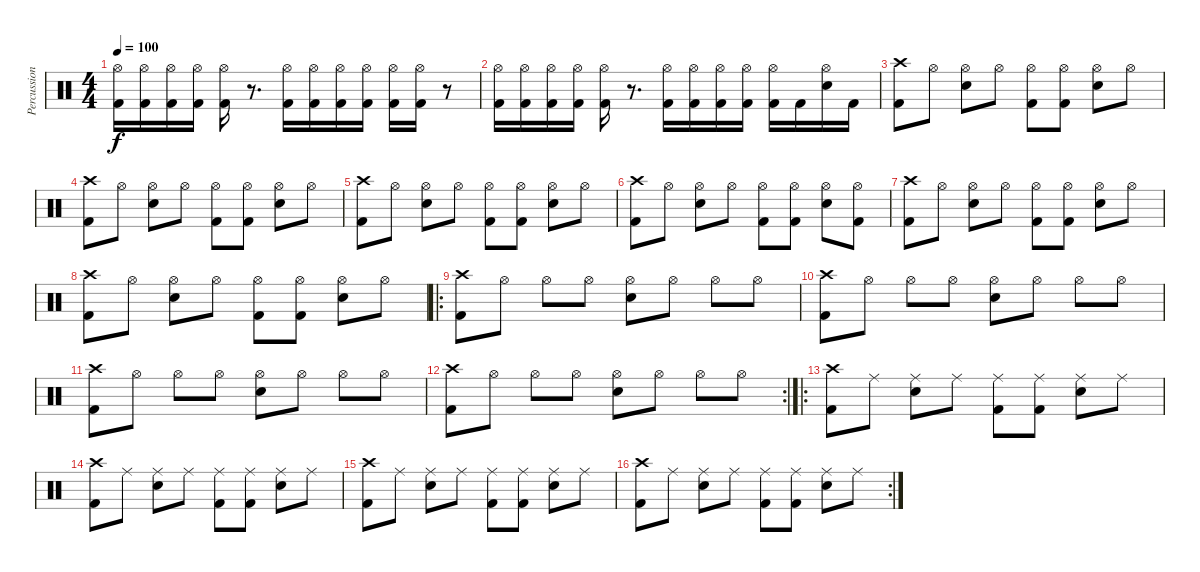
\track ("Percussion" "Percussion") {instrument percussion}
\staff {score}
\articulation defaults
\ts (4 4)
\tempo 100
\clef neutral
\ks c
("Hi-Hat (open)" "Kick (hit) 2").16{dy f} ("Hi-Hat (open)" "Kick (hit) 2").16 ("Hi-Hat (open)" "Kick (hit) 2").16 ("Hi-Hat (open)" "Kick (hit) 2").16 ("Hi-Hat (open)" "Kick (hit) 2").16 r.8{d} ("Hi-Hat (open)" "Kick (hit) 2").16 ("Hi-Hat (open)" "Kick (hit) 2").16 ("Hi-Hat (open)" "Kick (hit) 2").16 ("Hi-Hat (open)" "Kick (hit) 2").16 ("Hi-Hat (open)" "Kick (hit) 2").16 ("Hi-Hat (open)" "Kick (hit) 2").16 r.8 |
("Hi-Hat (open)" "Kick (hit) 2").16 ("Hi-Hat (open)" "Kick (hit) 2").16 ("Hi-Hat (open)" "Kick (hit) 2").16 ("Hi-Hat (open)" "Kick (hit) 2").16 ("Hi-Hat (open)" "Kick (hit) 2").16 r.8{d} ("Hi-Hat (open)" "Kick (hit) 2").16 ("Hi-Hat (open)" "Kick (hit) 2").16 ("Hi-Hat (open)" "Kick (hit) 2").16 ("Hi-Hat (open)" "Kick (hit) 2").16 ("Hi-Hat (open)" "Kick (hit) 2").16 "Kick (hit) 2".16 ("Hi-Hat (open)" "Snare (hit) 2").16 "Kick (hit) 2".16 |
("Crash high (hit)" "Kick (hit) 2").8 "Hi-Hat (open)".8 ("Hi-Hat (open)" "Snare (hit) 2").8 "Hi-Hat (open)".8 ("Hi-Hat (open)" "Kick (hit) 2").8 ("Hi-Hat (open)" "Kick (hit) 2").8 ("Hi-Hat (open)" "Snare (hit) 2").8 "Hi-Hat (open)".8 |
("Crash high (hit)" "Kick (hit) 2").8 "Hi-Hat (open)".8 ("Hi-Hat (open)" "Snare (hit) 2").8 "Hi-Hat (open)".8 ("Hi-Hat (open)" "Kick (hit) 2").8 ("Hi-Hat (open)" "Kick (hit) 2").8 ("Hi-Hat (open)" "Snare (hit) 2").8 "Hi-Hat (open)".8 |
("Crash high (hit)" "Kick (hit) 2").8 "Hi-Hat (open)".8 ("Hi-Hat (open)" "Snare (hit) 2").8 "Hi-Hat (open)".8 ("Hi-Hat (open)" "Kick (hit) 2").8 ("Hi-Hat (open)" "Kick (hit) 2").8 ("Hi-Hat (open)" "Snare (hit) 2").8 "Hi-Hat (open)".8 |
("Crash high (hit)" "Kick (hit) 2").8 "Hi-Hat (open)".8 ("Hi-Hat (open)" "Snare (hit) 2").8 "Hi-Hat (open)".8 ("Hi-Hat (open)" "Kick (hit) 2").8 ("Hi-Hat (open)" "Kick (hit) 2").8 ("Hi-Hat (open)" "Snare (hit) 2").8 ("Hi-Hat (open)" "Kick (hit) 2").8 |
("Crash high (hit)" "Kick (hit) 2").8 "Hi-Hat (open)".8 ("Hi-Hat (open)" "Snare (hit) 2").8 "Hi-Hat (open)".8 ("Hi-Hat (open)" "Kick (hit) 2").8 ("Hi-Hat (open)" "Kick (hit) 2").8 ("Hi-Hat (open)" "Snare (hit) 2").8 "Hi-Hat (open)".8 |
("Crash high (hit)" "Kick (hit) 2").8 "Hi-Hat (open)".8 ("Hi-Hat (open)" "Snare (hit) 2").8 "Hi-Hat (open)".8 ("Hi-Hat (open)" "Kick (hit) 2").8 ("Hi-Hat (open)" "Kick (hit) 2").8 ("Hi-Hat (open)" "Snare (hit) 2").8 "Hi-Hat (open)".8 |
\ro
("Crash high (hit)" "Kick (hit) 2").8 "Hi-Hat (open)".8 "Hi-Hat (open)".8 "Hi-Hat (open)".8 ("Hi-Hat (open)" "Snare (hit) 2").8 "Hi-Hat (open)".8 "Hi-Hat (open)".8 "Hi-Hat (open)".8 |
("Crash high (hit)" "Kick (hit) 2").8 "Hi-Hat (open)".8 "Hi-Hat (open)".8 "Hi-Hat (open)".8 ("Hi-Hat (open)" "Snare (hit) 2").8 "Hi-Hat (open)".8 "Hi-Hat (open)".8 "Hi-Hat (open)".8 |
("Crash high (hit)" "Kick (hit) 2").8 "Hi-Hat (open)".8 "Hi-Hat (open)".8 "Hi-Hat (open)".8 ("Hi-Hat (open)" "Snare (hit) 2").8 "Hi-Hat (open)".8 "Hi-Hat (open)".8 "Hi-Hat (open)".8 |
\rc 2
("Crash high (hit)" "Kick (hit) 2").8 "Hi-Hat (open)".8 "Hi-Hat (open)".8 "Hi-Hat (open)".8 ("Hi-Hat (open)" "Snare (hit) 2").8 "Hi-Hat (open)".8 "Hi-Hat (open)".8 "Hi-Hat (open)".8 |
\ro
("Crash high (hit)" "Kick (hit) 2").8 "Ride (middle)".8 ("Ride (middle)" "Snare (hit) 2").8 "Ride (middle)".8 ("Ride (middle)" "Kick (hit) 2").8 ("Ride (middle)" "Kick (hit) 2").8 ("Ride (middle)" "Snare (hit) 2").8 "Ride (middle)".8 |
("Crash high (hit)" "Kick (hit) 2").8 "Ride (middle)".8 ("Ride (middle)" "Snare (hit) 2").8 "Ride (middle)".8 ("Ride (middle)" "Kick (hit) 2").8 ("Ride (middle)" "Kick (hit) 2").8 ("Ride (middle)" "Snare (hit) 2").8 "Ride (middle)".8 |
("Crash high (hit)" "Kick (hit) 2").8 "Ride (middle)".8 ("Ride (middle)" "Snare (hit) 2").8 "Ride (middle)".8 ("Ride (middle)" "Kick (hit) 2").8 ("Ride (middle)" "Kick (hit) 2").8 ("Ride (middle)" "Snare (hit) 2").8 "Ride (middle)".8 |
\rc 2
("Crash high (hit)" "Kick (hit) 2").8 "Ride (middle)".8 ("Ride (middle)" "Snare (hit) 2").8 "Ride (middle)".8 ("Ride (middle)" "Kick (hit) 2").8 ("Ride (middle)" "Kick (hit) 2").8 ("Ride (middle)" "Snare (hit) 2").8 "Ride (middle)".8
